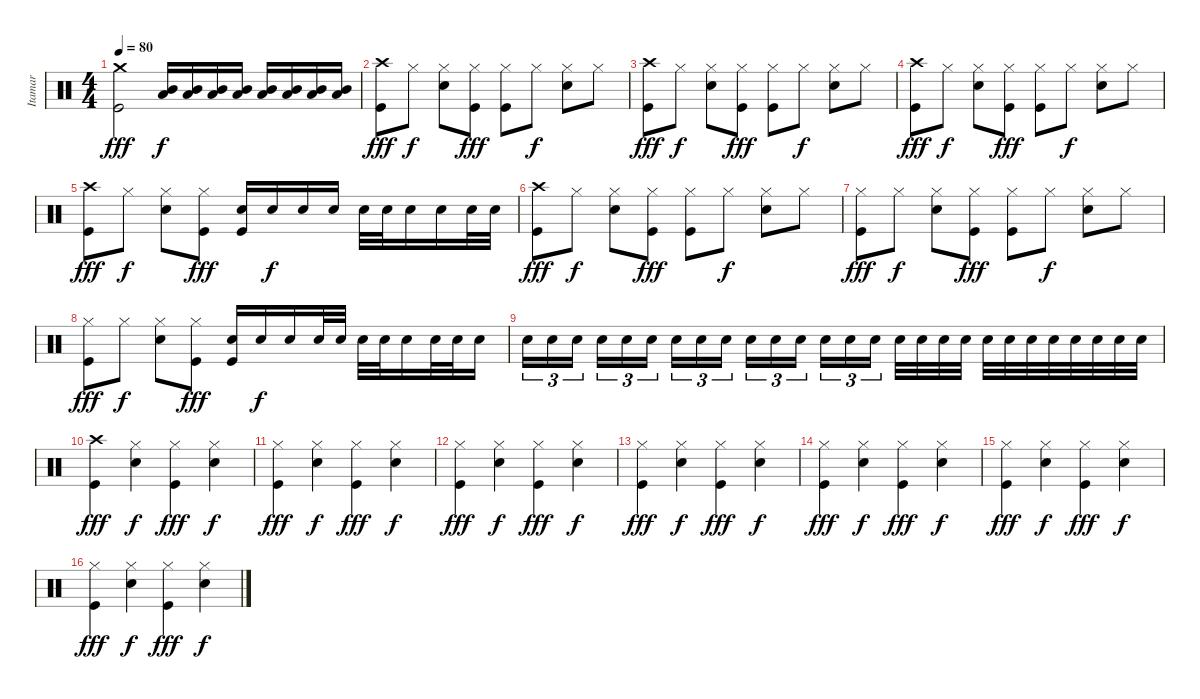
\track ("Itamar" "Itamar") {instrument percussion}
\staff {score}
\articulation defaults
\ts (4 4)
\tempo 80
\clef neutral
\ks c
("Kick (hit)" "Crash medium (hit)").2{dy fff} ("Low Tom (hit)" "Mid Tom (hit)").16{dy f} ("Low Tom (hit)" "Mid Tom (hit)").16 ("Low Tom (hit)" "Mid Tom (hit)").16 ("Low Tom (hit)" "Mid Tom (hit)").16 ("Low Tom (hit)" "Mid Tom (hit)").16 ("Low Tom (hit)" "Mid Tom (hit)").16 ("Low Tom (hit)" "Mid Tom (hit)").16 ("Low Tom (hit)" "Mid Tom (hit)").16 |
("Crash high (hit)" "Kick (hit)").8{dy fff} "Hi-Hat (closed)".8{dy f} ("Hi-Hat (closed)" "Electric Snare (hit)").8 ("Hi-Hat (closed)" "Kick (hit)").8{dy fff} ("Hi-Hat (closed)" "Kick (hit)").8 "Hi-Hat (closed)".8{dy f} ("Hi-Hat (closed)" "Electric Snare (hit)").8 "Hi-Hat (closed)".8 |
("Crash high (hit)" "Kick (hit)").8{dy fff} "Hi-Hat (closed)".8{dy f} ("Hi-Hat (closed)" "Electric Snare (hit)").8 ("Hi-Hat (closed)" "Kick (hit)").8{dy fff} ("Hi-Hat (closed)" "Kick (hit)").8 "Hi-Hat (closed)".8{dy f} ("Hi-Hat (closed)" "Electric Snare (hit)").8 "Hi-Hat (closed)".8 |
("Crash high (hit)" "Kick (hit)").8{dy fff} "Hi-Hat (closed)".8{dy f} ("Hi-Hat (closed)" "Electric Snare (hit)").8 ("Hi-Hat (closed)" "Kick (hit)").8{dy fff} ("Hi-Hat (closed)" "Kick (hit)").8 "Hi-Hat (closed)".8{dy f} ("Hi-Hat (closed)" "Electric Snare (hit)").8 "Hi-Hat (closed)".8 |
("Crash high (hit)" "Kick (hit)").8{dy fff} "Hi-Hat (closed)".8{dy f} ("Hi-Hat (closed)" "Electric Snare (hit)").8 ("Hi-Hat (closed)" "Kick (hit)").8{dy fff} ("Electric Snare (hit)" "Kick (hit)").16 "Electric Snare (hit)".16{dy f} "Electric Snare (hit)".16 "Electric Snare (hit)".16 "Electric Snare (hit)".32 "Electric Snare (hit)".32 "Electric Snare (hit)".16 "Electric Snare (hit)".16 "Electric Snare (hit)".32 "Electric Snare (hit)".32 |
("Crash high (hit)" "Kick (hit)").8{dy fff} "Hi-Hat (closed)".8{dy f} ("Hi-Hat (closed)" "Electric Snare (hit)").8 ("Hi-Hat (closed)" "Kick (hit)").8{dy fff} ("Hi-Hat (closed)" "Kick (hit)").8 "Hi-Hat (closed)".8{dy f} ("Hi-Hat (closed)" "Electric Snare (hit)").8 "Hi-Hat (closed)".8 |
("Hi-Hat (closed)" "Kick (hit)").8{dy fff} "Hi-Hat (closed)".8{dy f} ("Hi-Hat (closed)" "Electric Snare (hit)").8 ("Hi-Hat (closed)" "Kick (hit)").8{dy fff} ("Hi-Hat (closed)" "Kick (hit)").8 "Hi-Hat (closed)".8{dy f} ("Hi-Hat (closed)" "Electric Snare (hit)").8 "Hi-Hat (closed)".8 |
("Hi-Hat (closed)" "Kick (hit)").8{dy fff} "Hi-Hat (closed)".8{dy f} ("Hi-Hat (closed)" "Electric Snare (hit)").8 ("Hi-Hat (closed)" "Kick (hit)").8{dy fff} ("Electric Snare (hit)" "Kick (hit)").16 "Electric Snare (hit)".16{dy f} "Electric Snare (hit)".16 "Electric Snare (hit)".32 "Electric Snare (hit)".32 "Electric Snare (hit)".32 "Electric Snare (hit)".32 "Electric Snare (hit)".16 "Electric Snare (hit)".32 "Electric Snare (hit)".32 "Electric Snare (hit)".16 |
"Electric Snare (hit)".16{tu (3 2)} "Electric Snare (hit)".16{tu (3 2)} "Electric Snare (hit)".16{tu (3 2)} "Electric Snare (hit)".16{tu (3 2)} "Electric Snare (hit)".16{tu (3 2)} "Electric Snare (hit)".16{tu (3 2)} "Electric Snare (hit)".16{tu (3 2)} "Electric Snare (hit)".16{tu (3 2)} "Electric Snare (hit)".16{tu (3 2)} "Electric Snare (hit)".16{tu (3 2)} "Electric Snare (hit)".16{tu (3 2)} "Electric Snare (hit)".16{tu (3 2)} "Electric Snare (hit)".16{tu (3 2)} "Electric Snare (hit)".16{tu (3 2)} "Electric Snare (hit)".16{tu (3 2)} "Electric Snare (hit)".32 "Electric Snare (hit)".32 "Electric Snare (hit)".32 "Electric Snare (hit)".32 "Electric Snare (hit)".32 "Electric Snare (hit)".32 "Electric Snare (hit)".32 "Electric Snare (hit)".32 "Electric Snare (hit)".32 "Electric Snare (hit)".32 "Electric Snare (hit)".32 "Electric Snare (hit)".32 |
("Crash high (hit)" "Kick (hit)").4{dy fff} ("Hi-Hat (closed)" "Electric Snare (hit)").4{dy f} ("Hi-Hat (closed)" "Kick (hit)").4{dy fff} ("Hi-Hat (closed)" "Electric Snare (hit)").4{dy f} |
("Hi-Hat (closed)" "Kick (hit)").4{dy fff} ("Hi-Hat (closed)" "Electric Snare (hit)").4{dy f} ("Hi-Hat (closed)" "Kick (hit)").4{dy fff} ("Hi-Hat (closed)" "Electric Snare (hit)").4{dy f} |
("Hi-Hat (closed)" "Kick (hit)").4{dy fff} ("Hi-Hat (closed)" "Electric Snare (hit)").4{dy f} ("Hi-Hat (closed)" "Kick (hit)").4{dy fff} ("Hi-Hat (closed)" "Electric Snare (hit)").4{dy f} |
("Hi-Hat (closed)" "Kick (hit)").4{dy fff} ("Hi-Hat (closed)" "Electric Snare (hit)").4{dy f} ("Hi-Hat (closed)" "Kick (hit)").4{dy fff} ("Hi-Hat (closed)" "Electric Snare (hit)").4{dy f} |
("Hi-Hat (closed)" "Kick (hit)").4{dy fff} ("Hi-Hat (closed)" "Electric Snare (hit)").4{dy f} ("Hi-Hat (closed)" "Kick (hit)").4{dy fff} ("Hi-Hat (closed)" "Electric Snare (hit)").4{dy f} |
("Hi-Hat (closed)" "Kick (hit)").4{dy fff} ("Hi-Hat (closed)" "Electric Snare (hit)").4{dy f} ("Hi-Hat (closed)" "Kick (hit)").4{dy fff} ("Hi-Hat (closed)" "Electric Snare (hit)").4{dy f} |
("Hi-Hat (closed)" "Kick (hit)").4{dy fff} ("Hi-Hat (closed)" "Electric Snare (hit)").4{dy f} ("Hi-Hat (closed)" "Kick (hit)").4{dy fff} ("Hi-Hat (closed)" "Electric Snare (hit)").4{dy f}
